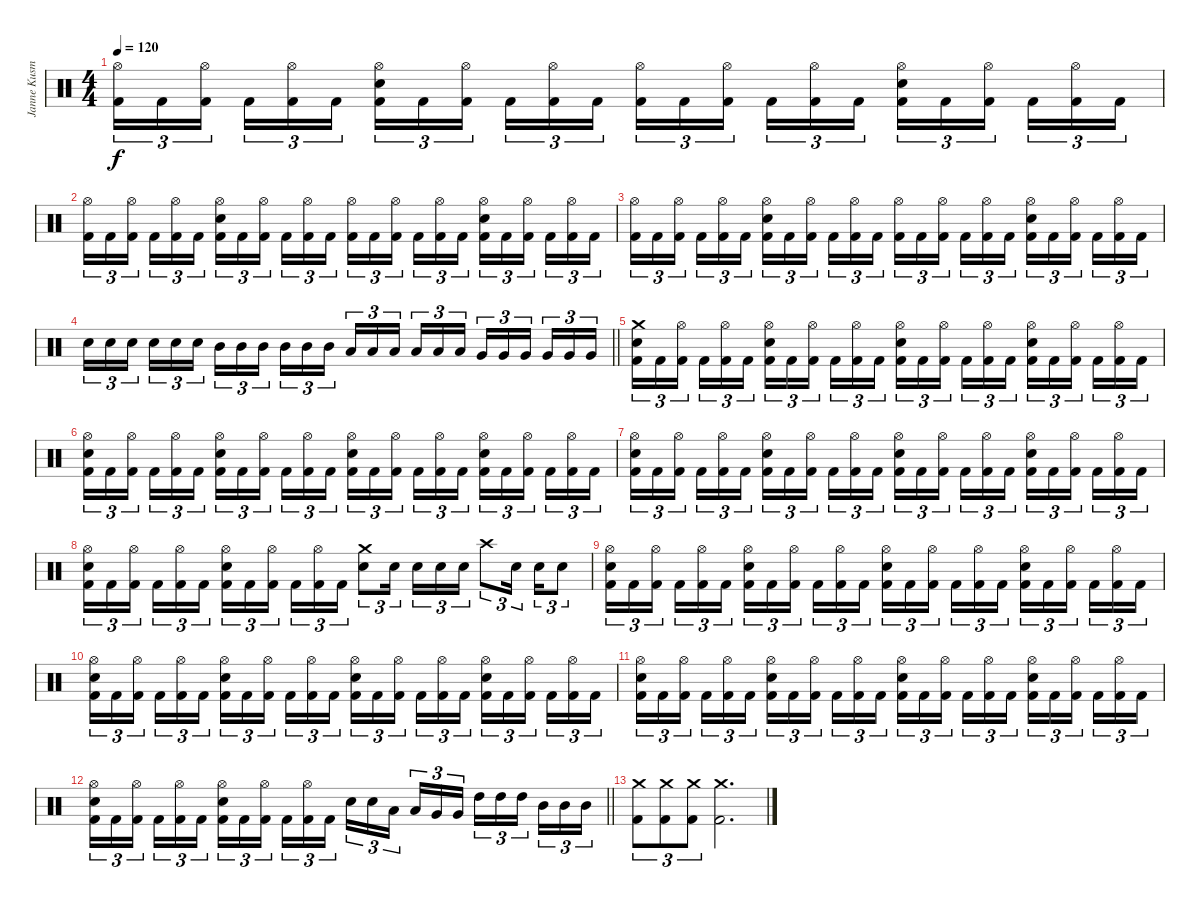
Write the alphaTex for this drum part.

\track ("Janne Kusmin" "Janne Kusm") {instrument percussion}
\staff {score}
\articulation defaults
\ts (4 4)
\tempo 120
\clef neutral
\ks c
("Hi-Hat (open)" "Kick (hit) 2").16{tu (3 2) dy f} "Kick (hit) 2".16{tu (3 2)} ("Hi-Hat (open)" "Kick (hit) 2").16{tu (3 2) beam splitsecondary} "Kick (hit) 2".16{tu (3 2)} ("Hi-Hat (open)" "Kick (hit) 2").16{tu (3 2)} "Kick (hit) 2".16{tu (3 2)} ("Hi-Hat (open)" "Snare (hit) 2" "Kick (hit) 2").16{tu (3 2)} "Kick (hit) 2".16{tu (3 2)} ("Hi-Hat (open)" "Kick (hit) 2").16{tu (3 2) beam splitsecondary} "Kick (hit) 2".16{tu (3 2)} ("Hi-Hat (open)" "Kick (hit) 2").16{tu (3 2)} "Kick (hit) 2".16{tu (3 2)} ("Hi-Hat (open)" "Kick (hit) 2").16{tu (3 2)} "Kick (hit) 2".16{tu (3 2)} ("Hi-Hat (open)" "Kick (hit) 2").16{tu (3 2) beam splitsecondary} "Kick (hit) 2".16{tu (3 2)} ("Hi-Hat (open)" "Kick (hit) 2").16{tu (3 2)} "Kick (hit) 2".16{tu (3 2)} ("Hi-Hat (open)" "Snare (hit) 2" "Kick (hit) 2").16{tu (3 2)} "Kick (hit) 2".16{tu (3 2)} ("Hi-Hat (open)" "Kick (hit) 2").16{tu (3 2) beam splitsecondary} "Kick (hit) 2".16{tu (3 2)} ("Hi-Hat (open)" "Kick (hit) 2").16{tu (3 2)} "Kick (hit) 2".16{tu (3 2)} |
("Hi-Hat (open)" "Kick (hit) 2").16{tu (3 2)} "Kick (hit) 2".16{tu (3 2)} ("Hi-Hat (open)" "Kick (hit) 2").16{tu (3 2) beam splitsecondary} "Kick (hit) 2".16{tu (3 2)} ("Hi-Hat (open)" "Kick (hit) 2").16{tu (3 2)} "Kick (hit) 2".16{tu (3 2)} ("Hi-Hat (open)" "Snare (hit) 2" "Kick (hit) 2").16{tu (3 2)} "Kick (hit) 2".16{tu (3 2)} ("Hi-Hat (open)" "Kick (hit) 2").16{tu (3 2) beam splitsecondary} "Kick (hit) 2".16{tu (3 2)} ("Hi-Hat (open)" "Kick (hit) 2").16{tu (3 2)} "Kick (hit) 2".16{tu (3 2)} ("Hi-Hat (open)" "Kick (hit) 2").16{tu (3 2)} "Kick (hit) 2".16{tu (3 2)} ("Hi-Hat (open)" "Kick (hit) 2").16{tu (3 2) beam splitsecondary} "Kick (hit) 2".16{tu (3 2)} ("Hi-Hat (open)" "Kick (hit) 2").16{tu (3 2)} "Kick (hit) 2".16{tu (3 2)} ("Hi-Hat (open)" "Snare (hit) 2" "Kick (hit) 2").16{tu (3 2)} "Kick (hit) 2".16{tu (3 2)} ("Hi-Hat (open)" "Kick (hit) 2").16{tu (3 2) beam splitsecondary} "Kick (hit) 2".16{tu (3 2)} ("Hi-Hat (open)" "Kick (hit) 2").16{tu (3 2)} "Kick (hit) 2".16{tu (3 2)} |
("Hi-Hat (open)" "Kick (hit) 2").16{tu (3 2)} "Kick (hit) 2".16{tu (3 2)} ("Hi-Hat (open)" "Kick (hit) 2").16{tu (3 2) beam splitsecondary} "Kick (hit) 2".16{tu (3 2)} ("Hi-Hat (open)" "Kick (hit) 2").16{tu (3 2)} "Kick (hit) 2".16{tu (3 2)} ("Hi-Hat (open)" "Snare (hit) 2" "Kick (hit) 2").16{tu (3 2)} "Kick (hit) 2".16{tu (3 2)} ("Hi-Hat (open)" "Kick (hit) 2").16{tu (3 2) beam splitsecondary} "Kick (hit) 2".16{tu (3 2)} ("Hi-Hat (open)" "Kick (hit) 2").16{tu (3 2)} "Kick (hit) 2".16{tu (3 2)} ("Hi-Hat (open)" "Kick (hit) 2").16{tu (3 2)} "Kick (hit) 2".16{tu (3 2)} ("Hi-Hat (open)" "Kick (hit) 2").16{tu (3 2) beam splitsecondary} "Kick (hit) 2".16{tu (3 2)} ("Hi-Hat (open)" "Kick (hit) 2").16{tu (3 2)} "Kick (hit) 2".16{tu (3 2)} ("Hi-Hat (open)" "Snare (hit) 2" "Kick (hit) 2").16{tu (3 2)} "Kick (hit) 2".16{tu (3 2)} ("Hi-Hat (open)" "Kick (hit) 2").16{tu (3 2) beam splitsecondary} "Kick (hit) 2".16{tu (3 2)} ("Hi-Hat (open)" "Kick (hit) 2").16{tu (3 2)} "Kick (hit) 2".16{tu (3 2)} |
\barLineRight lightlight "Snare (hit) 2".16{tu (3 2)} "Snare (hit) 2".16{tu (3 2)} "Snare (hit) 2".16{tu (3 2) beam splitsecondary} "Snare (hit) 2".16{tu (3 2)} "Snare (hit) 2".16{tu (3 2)} "Snare (hit) 2".16{tu (3 2)} "Mid Tom (hit)".16{tu (3 2)} "Mid Tom (hit)".16{tu (3 2)} "Mid Tom (hit)".16{tu (3 2) beam splitsecondary} "Mid Tom (hit)".16{tu (3 2)} "Mid Tom (hit)".16{tu (3 2)} "Mid Tom (hit)".16{tu (3 2)} "Low Tom (hit)".16{tu (3 2)} "Low Tom (hit)".16{tu (3 2)} "Low Tom (hit)".16{tu (3 2) beam splitsecondary} "Low Tom (hit)".16{tu (3 2)} "Low Tom (hit)".16{tu (3 2)} "Low Tom (hit)".16{tu (3 2)} "Very Low Tom (hit)".16{tu (3 2)} "Very Low Tom (hit)".16{tu (3 2)} "Very Low Tom (hit)".16{tu (3 2) beam splitsecondary} "Very Low Tom (hit)".16{tu (3 2)} "Very Low Tom (hit)".16{tu (3 2)} "Very Low Tom (hit)".16{tu (3 2)}
|
("Crash medium (hit)" "Snare (hit) 2" "Kick (hit) 2").16{tu (3 2)} "Kick (hit) 2".16{tu (3 2)} ("Hi-Hat (open)" "Kick (hit) 2").16{tu (3 2) beam splitsecondary} "Kick (hit) 2".16{tu (3 2)} ("Hi-Hat (open)" "Kick (hit) 2").16{tu (3 2)} "Kick (hit) 2".16{tu (3 2)} ("Hi-Hat (open)" "Snare (hit) 2" "Kick (hit) 2").16{tu (3 2)} "Kick (hit) 2".16{tu (3 2)} ("Hi-Hat (open)" "Kick (hit) 2").16{tu (3 2) beam splitsecondary} "Kick (hit) 2".16{tu (3 2)} ("Hi-Hat (open)" "Kick (hit) 2").16{tu (3 2)} "Kick (hit) 2".16{tu (3 2)} ("Hi-Hat (open)" "Snare (hit) 2" "Kick (hit) 2").16{tu (3 2)} "Kick (hit) 2".16{tu (3 2)} ("Hi-Hat (open)" "Kick (hit) 2").16{tu (3 2) beam splitsecondary} "Kick (hit) 2".16{tu (3 2)} ("Hi-Hat (open)" "Kick (hit) 2").16{tu (3 2)} "Kick (hit) 2".16{tu (3 2)} ("Hi-Hat (open)" "Snare (hit) 2" "Kick (hit) 2").16{tu (3 2)} "Kick (hit) 2".16{tu (3 2)} ("Hi-Hat (open)" "Kick (hit) 2").16{tu (3 2) beam splitsecondary} "Kick (hit) 2".16{tu (3 2)} ("Hi-Hat (open)" "Kick (hit) 2").16{tu (3 2)} "Kick (hit) 2".16{tu (3 2)} |
("Hi-Hat (open)" "Snare (hit) 2" "Kick (hit) 2").16{tu (3 2)} "Kick (hit) 2".16{tu (3 2)} ("Hi-Hat (open)" "Kick (hit) 2").16{tu (3 2) beam splitsecondary} "Kick (hit) 2".16{tu (3 2)} ("Hi-Hat (open)" "Kick (hit) 2").16{tu (3 2)} "Kick (hit) 2".16{tu (3 2)} ("Hi-Hat (open)" "Snare (hit) 2" "Kick (hit) 2").16{tu (3 2)} "Kick (hit) 2".16{tu (3 2)} ("Hi-Hat (open)" "Kick (hit) 2").16{tu (3 2) beam splitsecondary} "Kick (hit) 2".16{tu (3 2)} ("Hi-Hat (open)" "Kick (hit) 2").16{tu (3 2)} "Kick (hit) 2".16{tu (3 2)} ("Hi-Hat (open)" "Snare (hit) 2" "Kick (hit) 2").16{tu (3 2)} "Kick (hit) 2".16{tu (3 2)} ("Hi-Hat (open)" "Kick (hit) 2").16{tu (3 2) beam splitsecondary} "Kick (hit) 2".16{tu (3 2)} ("Hi-Hat (open)" "Kick (hit) 2").16{tu (3 2)} "Kick (hit) 2".16{tu (3 2)} ("Hi-Hat (open)" "Snare (hit) 2" "Kick (hit) 2").16{tu (3 2)} "Kick (hit) 2".16{tu (3 2)} ("Hi-Hat (open)" "Kick (hit) 2").16{tu (3 2) beam splitsecondary} "Kick (hit) 2".16{tu (3 2)} ("Hi-Hat (open)" "Kick (hit) 2").16{tu (3 2)} "Kick (hit) 2".16{tu (3 2)} |
("Hi-Hat (open)" "Snare (hit) 2" "Kick (hit) 2").16{tu (3 2)} "Kick (hit) 2".16{tu (3 2)} ("Hi-Hat (open)" "Kick (hit) 2").16{tu (3 2) beam splitsecondary} "Kick (hit) 2".16{tu (3 2)} ("Hi-Hat (open)" "Kick (hit) 2").16{tu (3 2)} "Kick (hit) 2".16{tu (3 2)} ("Hi-Hat (open)" "Snare (hit) 2" "Kick (hit) 2").16{tu (3 2)} "Kick (hit) 2".16{tu (3 2)} ("Hi-Hat (open)" "Kick (hit) 2").16{tu (3 2) beam splitsecondary} "Kick (hit) 2".16{tu (3 2)} ("Hi-Hat (open)" "Kick (hit) 2").16{tu (3 2)} "Kick (hit) 2".16{tu (3 2)} ("Hi-Hat (open)" "Snare (hit) 2" "Kick (hit) 2").16{tu (3 2)} "Kick (hit) 2".16{tu (3 2)} ("Hi-Hat (open)" "Kick (hit) 2").16{tu (3 2) beam splitsecondary} "Kick (hit) 2".16{tu (3 2)} ("Hi-Hat (open)" "Kick (hit) 2").16{tu (3 2)} "Kick (hit) 2".16{tu (3 2)} ("Hi-Hat (open)" "Snare (hit) 2" "Kick (hit) 2").16{tu (3 2)} "Kick (hit) 2".16{tu (3 2)} ("Hi-Hat (open)" "Kick (hit) 2").16{tu (3 2) beam splitsecondary} "Kick (hit) 2".16{tu (3 2)} ("Hi-Hat (open)" "Kick (hit) 2").16{tu (3 2)} "Kick (hit) 2".16{tu (3 2)} |
("Hi-Hat (open)" "Snare (hit) 2" "Kick (hit) 2").16{tu (3 2)} "Kick (hit) 2".16{tu (3 2)} ("Hi-Hat (open)" "Kick (hit) 2").16{tu (3 2) beam splitsecondary} "Kick (hit) 2".16{tu (3 2)} ("Hi-Hat (open)" "Kick (hit) 2").16{tu (3 2)} "Kick (hit) 2".16{tu (3 2)} ("Hi-Hat (open)" "Snare (hit) 2" "Kick (hit) 2").16{tu (3 2)} "Kick (hit) 2".16{tu (3 2)} ("Hi-Hat (open)" "Kick (hit) 2").16{tu (3 2) beam splitsecondary} "Kick (hit) 2".16{tu (3 2)} ("Hi-Hat (open)" "Kick (hit) 2").16{tu (3 2)} "Kick (hit) 2".16{tu (3 2)} ("Crash medium (hit)" "Snare (hit) 2").8{tu (3 2)} "Snare (hit) 2".16{tu (3 2) beam splitsecondary} "Snare (hit) 2".16{tu (3 2)} "Snare (hit) 2".16{tu (3 2)} "Snare (hit) 2".16{tu (3 2)} "Crash high (hit)".8{tu (3 2)} "Snare (hit) 2".16{tu (3 2) beam splitsecondary} "Snare (hit) 2".16{tu (3 2)} "Snare (hit) 2".8{tu (3 2)} |
("Hi-Hat (open)" "Snare (hit) 2" "Kick (hit) 2").16{tu (3 2)} "Kick (hit) 2".16{tu (3 2)} ("Hi-Hat (open)" "Kick (hit) 2").16{tu (3 2) beam splitsecondary} "Kick (hit) 2".16{tu (3 2)} ("Hi-Hat (open)" "Kick (hit) 2").16{tu (3 2)} "Kick (hit) 2".16{tu (3 2)} ("Hi-Hat (open)" "Snare (hit) 2" "Kick (hit) 2").16{tu (3 2)} "Kick (hit) 2".16{tu (3 2)} ("Hi-Hat (open)" "Kick (hit) 2").16{tu (3 2) beam splitsecondary} "Kick (hit) 2".16{tu (3 2)} ("Hi-Hat (open)" "Kick (hit) 2").16{tu (3 2)} "Kick (hit) 2".16{tu (3 2)} ("Hi-Hat (open)" "Snare (hit) 2" "Kick (hit) 2").16{tu (3 2)} "Kick (hit) 2".16{tu (3 2)} ("Hi-Hat (open)" "Kick (hit) 2").16{tu (3 2) beam splitsecondary} "Kick (hit) 2".16{tu (3 2)} ("Hi-Hat (open)" "Kick (hit) 2").16{tu (3 2)} "Kick (hit) 2".16{tu (3 2)} ("Hi-Hat (open)" "Snare (hit) 2" "Kick (hit) 2").16{tu (3 2)} "Kick (hit) 2".16{tu (3 2)} ("Hi-Hat (open)" "Kick (hit) 2").16{tu (3 2) beam splitsecondary} "Kick (hit) 2".16{tu (3 2)} ("Hi-Hat (open)" "Kick (hit) 2").16{tu (3 2)} "Kick (hit) 2".16{tu (3 2)} |
("Hi-Hat (open)" "Snare (hit) 2" "Kick (hit) 2").16{tu (3 2)} "Kick (hit) 2".16{tu (3 2)} ("Hi-Hat (open)" "Kick (hit) 2").16{tu (3 2) beam splitsecondary} "Kick (hit) 2".16{tu (3 2)} ("Hi-Hat (open)" "Kick (hit) 2").16{tu (3 2)} "Kick (hit) 2".16{tu (3 2)} ("Hi-Hat (open)" "Snare (hit) 2" "Kick (hit) 2").16{tu (3 2)} "Kick (hit) 2".16{tu (3 2)} ("Hi-Hat (open)" "Kick (hit) 2").16{tu (3 2) beam splitsecondary} "Kick (hit) 2".16{tu (3 2)} ("Hi-Hat (open)" "Kick (hit) 2").16{tu (3 2)} "Kick (hit) 2".16{tu (3 2)} ("Hi-Hat (open)" "Snare (hit) 2" "Kick (hit) 2").16{tu (3 2)} "Kick (hit) 2".16{tu (3 2)} ("Hi-Hat (open)" "Kick (hit) 2").16{tu (3 2) beam splitsecondary} "Kick (hit) 2".16{tu (3 2)} ("Hi-Hat (open)" "Kick (hit) 2").16{tu (3 2)} "Kick (hit) 2".16{tu (3 2)} ("Hi-Hat (open)" "Snare (hit) 2" "Kick (hit) 2").16{tu (3 2)} "Kick (hit) 2".16{tu (3 2)} ("Hi-Hat (open)" "Kick (hit) 2").16{tu (3 2) beam splitsecondary} "Kick (hit) 2".16{tu (3 2)} ("Hi-Hat (open)" "Kick (hit) 2").16{tu (3 2)} "Kick (hit) 2".16{tu (3 2)} |
("Hi-Hat (open)" "Snare (hit) 2" "Kick (hit) 2").16{tu (3 2)} "Kick (hit) 2".16{tu (3 2)} ("Hi-Hat (open)" "Kick (hit) 2").16{tu (3 2) beam splitsecondary} "Kick (hit) 2".16{tu (3 2)} ("Hi-Hat (open)" "Kick (hit) 2").16{tu (3 2)} "Kick (hit) 2".16{tu (3 2)} ("Hi-Hat (open)" "Snare (hit) 2" "Kick (hit) 2").16{tu (3 2)} "Kick (hit) 2".16{tu (3 2)} ("Hi-Hat (open)" "Kick (hit) 2").16{tu (3 2) beam splitsecondary} "Kick (hit) 2".16{tu (3 2)} ("Hi-Hat (open)" "Kick (hit) 2").16{tu (3 2)} "Kick (hit) 2".16{tu (3 2)} ("Hi-Hat (open)" "Snare (hit) 2" "Kick (hit) 2").16{tu (3 2)} "Kick (hit) 2".16{tu (3 2)} ("Hi-Hat (open)" "Kick (hit) 2").16{tu (3 2) beam splitsecondary} "Kick (hit) 2".16{tu (3 2)} ("Hi-Hat (open)" "Kick (hit) 2").16{tu (3 2)} "Kick (hit) 2".16{tu (3 2)} ("Hi-Hat (open)" "Snare (hit) 2" "Kick (hit) 2").16{tu (3 2)} "Kick (hit) 2".16{tu (3 2)} ("Hi-Hat (open)" "Kick (hit) 2").16{tu (3 2) beam splitsecondary} "Kick (hit) 2".16{tu (3 2)} ("Hi-Hat (open)" "Kick (hit) 2").16{tu (3 2)} "Kick (hit) 2".16{tu (3 2)} |
\barLineRight lightlight
("Hi-Hat (open)" "Snare (hit) 2" "Kick (hit) 2").16{tu (3 2)} "Kick (hit) 2".16{tu (3 2)} ("Hi-Hat (open)" "Kick (hit) 2").16{tu (3 2) beam splitsecondary} "Kick (hit) 2".16{tu (3 2)} ("Hi-Hat (open)" "Kick (hit) 2").16{tu (3 2)} "Kick (hit) 2".16{tu (3 2)} ("Hi-Hat (open)" "Snare (hit) 2" "Kick (hit) 2").16{tu (3 2)} "Kick (hit) 2".16{tu (3 2)} ("Hi-Hat (open)" "Kick (hit) 2").16{tu (3 2) beam splitsecondary} "Kick (hit) 2".16{tu (3 2)} ("Hi-Hat (open)" "Kick (hit) 2").16{tu (3 2)} "Kick (hit) 2".16{tu (3 2)} "Snare (hit) 2".16{tu (3 2)} "Snare (hit) 2".16{tu (3 2)} "Low Tom (hit)".16{tu (3 2) beam splitsecondary} "Low Tom (hit)".16{tu (3 2)} "Very Low Tom (hit)".16{tu (3 2)} "Very Low Tom (hit)".16{tu (3 2)} "High Tom (hit)".16{tu (3 2)} "High Tom (hit)".16{tu (3 2)} "High Tom (hit)".16{tu (3 2) beam splitsecondary} "Mid Tom (hit)".16{tu (3 2)} "Mid Tom (hit)".16{tu (3 2)} "Mid Tom (hit)".16{tu (3 2)} |
("Crash medium (hit)" "Kick (hit) 2").8{tu (3 2)} ("Crash medium (hit)" "Kick (hit) 2").8{tu (3 2)} ("Crash medium (hit)" "Kick (hit) 2").8{tu (3 2)} ("Crash medium (hit)" "Kick (hit) 2").2{d}
